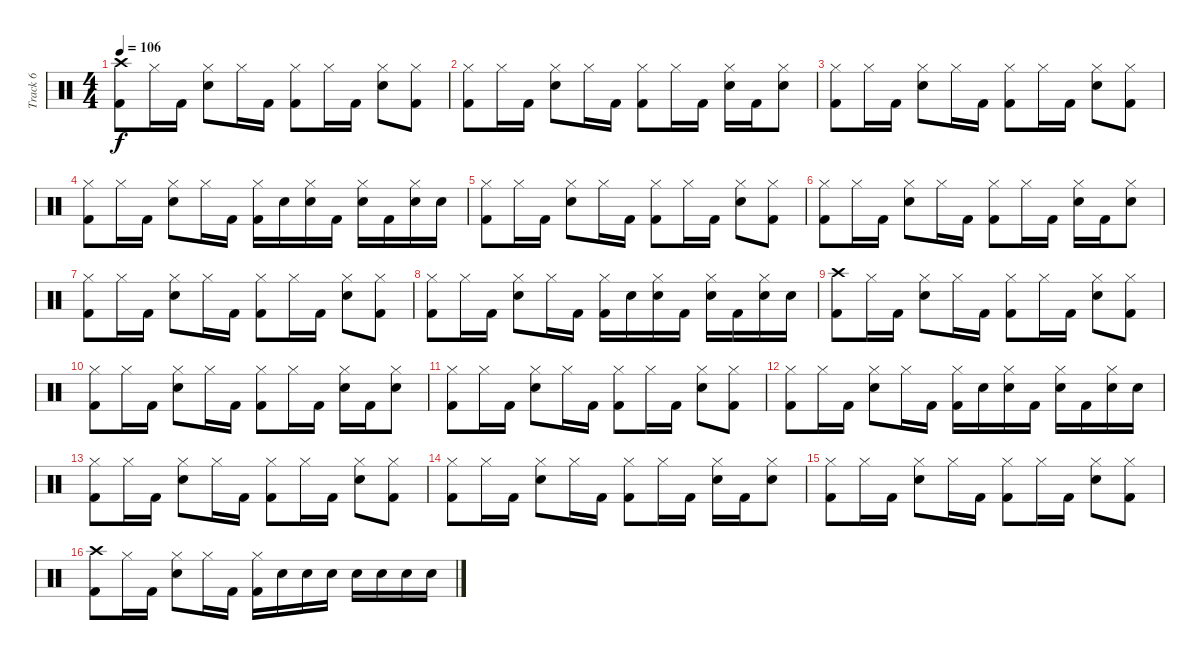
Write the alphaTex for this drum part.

\track ("Track 6" "Track 6") {instrument percussion}
\staff {score}
\articulation defaults
\ts (4 4)
\tempo 106
\clef neutral
\ks c
("Crash high (hit)" "Kick (hit) 2").8{dy f} "Hi-Hat (closed)".16 "Kick (hit) 2".16 ("Hi-Hat (closed)" "Snare (hit) 2").8 "Hi-Hat (closed)".16 "Kick (hit) 2".16 ("Hi-Hat (closed)" "Kick (hit) 2").8 "Hi-Hat (closed)".16 "Kick (hit) 2".16 ("Hi-Hat (closed)" "Snare (hit) 2").8 ("Hi-Hat (closed)" "Kick (hit) 2").8 |
("Hi-Hat (closed)" "Kick (hit) 2").8 "Hi-Hat (closed)".16 "Kick (hit) 2".16 ("Hi-Hat (closed)" "Snare (hit) 2").8 "Hi-Hat (closed)".16 "Kick (hit) 2".16 ("Hi-Hat (closed)" "Kick (hit) 2").8 "Hi-Hat (closed)".16 "Kick (hit) 2".16 ("Hi-Hat (closed)" "Snare (hit) 2").16 "Kick (hit) 2".16 ("Hi-Hat (closed)" "Snare (hit) 2").8 |
("Hi-Hat (closed)" "Kick (hit) 2").8 "Hi-Hat (closed)".16 "Kick (hit) 2".16 ("Hi-Hat (closed)" "Snare (hit) 2").8 "Hi-Hat (closed)".16 "Kick (hit) 2".16 ("Hi-Hat (closed)" "Kick (hit) 2").8 "Hi-Hat (closed)".16 "Kick (hit) 2".16 ("Hi-Hat (closed)" "Snare (hit) 2").8 ("Hi-Hat (closed)" "Kick (hit) 2").8 |
("Hi-Hat (closed)" "Kick (hit) 2").8 "Hi-Hat (closed)".16 "Kick (hit) 2".16 ("Hi-Hat (closed)" "Snare (hit) 2").8 "Hi-Hat (closed)".16 "Kick (hit) 2".16 ("Hi-Hat (closed)" "Kick (hit) 2").16 "Snare (hit) 2".16 ("Hi-Hat (closed)" "Snare (hit) 2").16 "Kick (hit) 2".16 ("Hi-Hat (closed)" "Snare (hit) 2").16 "Kick (hit) 2".16 ("Hi-Hat (closed)" "Snare (hit) 2").16 "Snare (hit) 2".16 |
("Hi-Hat (closed)" "Kick (hit) 2").8 "Hi-Hat (closed)".16 "Kick (hit) 2".16 ("Hi-Hat (closed)" "Snare (hit) 2").8 "Hi-Hat (closed)".16 "Kick (hit) 2".16 ("Hi-Hat (closed)" "Kick (hit) 2").8 "Hi-Hat (closed)".16 "Kick (hit) 2".16 ("Hi-Hat (closed)" "Snare (hit) 2").8 ("Hi-Hat (closed)" "Kick (hit) 2").8 |
("Hi-Hat (closed)" "Kick (hit) 2").8 "Hi-Hat (closed)".16 "Kick (hit) 2".16 ("Hi-Hat (closed)" "Snare (hit) 2").8 "Hi-Hat (closed)".16 "Kick (hit) 2".16 ("Hi-Hat (closed)" "Kick (hit) 2").8 "Hi-Hat (closed)".16 "Kick (hit) 2".16 ("Hi-Hat (closed)" "Snare (hit) 2").16 "Kick (hit) 2".16 ("Hi-Hat (closed)" "Snare (hit) 2").8 |
("Hi-Hat (closed)" "Kick (hit) 2").8 "Hi-Hat (closed)".16 "Kick (hit) 2".16 ("Hi-Hat (closed)" "Snare (hit) 2").8 "Hi-Hat (closed)".16 "Kick (hit) 2".16 ("Hi-Hat (closed)" "Kick (hit) 2").8 "Hi-Hat (closed)".16 "Kick (hit) 2".16 ("Hi-Hat (closed)" "Snare (hit) 2").8 ("Hi-Hat (closed)" "Kick (hit) 2").8 |
("Hi-Hat (closed)" "Kick (hit) 2").8 "Hi-Hat (closed)".16 "Kick (hit) 2".16 ("Hi-Hat (closed)" "Snare (hit) 2").8 "Hi-Hat (closed)".16 "Kick (hit) 2".16 ("Hi-Hat (closed)" "Kick (hit) 2").16 "Snare (hit) 2".16 ("Hi-Hat (closed)" "Snare (hit) 2").16 "Kick (hit) 2".16 ("Hi-Hat (closed)" "Snare (hit) 2").16 "Kick (hit) 2".16 ("Hi-Hat (closed)" "Snare (hit) 2").16 "Snare (hit) 2".16 |
("Crash high (hit)" "Kick (hit) 2").8 "Hi-Hat (closed)".16 "Kick (hit) 2".16 ("Hi-Hat (closed)" "Snare (hit) 2").8 "Hi-Hat (closed)".16 "Kick (hit) 2".16 ("Hi-Hat (closed)" "Kick (hit) 2").8 "Hi-Hat (closed)".16 "Kick (hit) 2".16 ("Hi-Hat (closed)" "Snare (hit) 2").8 ("Hi-Hat (closed)" "Kick (hit) 2").8 |
("Hi-Hat (closed)" "Kick (hit) 2").8 "Hi-Hat (closed)".16 "Kick (hit) 2".16 ("Hi-Hat (closed)" "Snare (hit) 2").8 "Hi-Hat (closed)".16 "Kick (hit) 2".16 ("Hi-Hat (closed)" "Kick (hit) 2").8 "Hi-Hat (closed)".16 "Kick (hit) 2".16 ("Hi-Hat (closed)" "Snare (hit) 2").16 "Kick (hit) 2".16 ("Hi-Hat (closed)" "Snare (hit) 2").8 |
("Hi-Hat (closed)" "Kick (hit) 2").8 "Hi-Hat (closed)".16 "Kick (hit) 2".16 ("Hi-Hat (closed)" "Snare (hit) 2").8 "Hi-Hat (closed)".16 "Kick (hit) 2".16 ("Hi-Hat (closed)" "Kick (hit) 2").8 "Hi-Hat (closed)".16 "Kick (hit) 2".16 ("Hi-Hat (closed)" "Snare (hit) 2").8 ("Hi-Hat (closed)" "Kick (hit) 2").8 |
("Hi-Hat (closed)" "Kick (hit) 2").8 "Hi-Hat (closed)".16 "Kick (hit) 2".16 ("Hi-Hat (closed)" "Snare (hit) 2").8 "Hi-Hat (closed)".16 "Kick (hit) 2".16 ("Hi-Hat (closed)" "Kick (hit) 2").16 "Snare (hit) 2".16 ("Hi-Hat (closed)" "Snare (hit) 2").16 "Kick (hit) 2".16 ("Hi-Hat (closed)" "Snare (hit) 2").16 "Kick (hit) 2".16 ("Hi-Hat (closed)" "Snare (hit) 2").16 "Snare (hit) 2".16 |
("Hi-Hat (closed)" "Kick (hit) 2").8 "Hi-Hat (closed)".16 "Kick (hit) 2".16 ("Hi-Hat (closed)" "Snare (hit) 2").8 "Hi-Hat (closed)".16 "Kick (hit) 2".16 ("Hi-Hat (closed)" "Kick (hit) 2").8 "Hi-Hat (closed)".16 "Kick (hit) 2".16 ("Hi-Hat (closed)" "Snare (hit) 2").8 ("Hi-Hat (closed)" "Kick (hit) 2").8 |
("Hi-Hat (closed)" "Kick (hit) 2").8 "Hi-Hat (closed)".16 "Kick (hit) 2".16 ("Hi-Hat (closed)" "Snare (hit) 2").8 "Hi-Hat (closed)".16 "Kick (hit) 2".16 ("Hi-Hat (closed)" "Kick (hit) 2").8 "Hi-Hat (closed)".16 "Kick (hit) 2".16 ("Hi-Hat (closed)" "Snare (hit) 2").16 "Kick (hit) 2".16 ("Hi-Hat (closed)" "Snare (hit) 2").8 |
("Hi-Hat (closed)" "Kick (hit) 2").8 "Hi-Hat (closed)".16 "Kick (hit) 2".16 ("Hi-Hat (closed)" "Snare (hit) 2").8 "Hi-Hat (closed)".16 "Kick (hit) 2".16 ("Hi-Hat (closed)" "Kick (hit) 2").8 "Hi-Hat (closed)".16 "Kick (hit) 2".16 ("Hi-Hat (closed)" "Snare (hit) 2").8 ("Hi-Hat (closed)" "Kick (hit) 2").8 |
("Crash high (hit)" "Kick (hit) 2").8 "Hi-Hat (closed)".16 "Kick (hit) 2".16 ("Hi-Hat (closed)" "Snare (hit) 2").8 "Hi-Hat (closed)".16 "Kick (hit) 2".16 ("Hi-Hat (closed)" "Kick (hit) 2").16 "Snare (hit) 2".16 "Snare (hit) 2".16 "Snare (hit) 2".16 "Snare (hit) 2".16 "Snare (hit) 2".16 "Snare (hit) 2".16 "Snare (hit) 2".16
